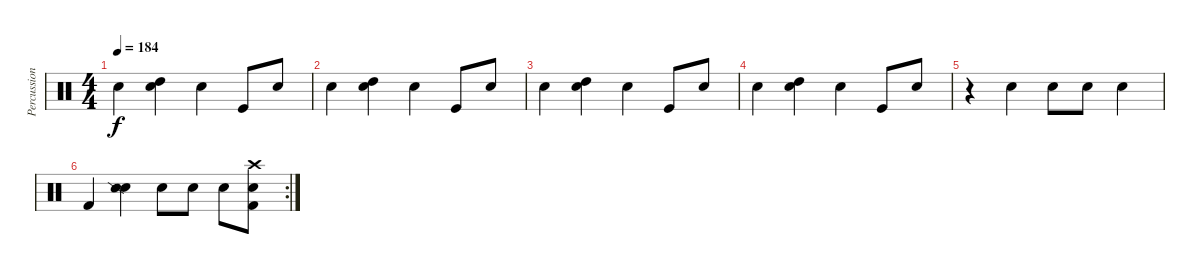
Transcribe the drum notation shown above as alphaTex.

\track ("Percussions" "Percussion") {instrument percussion}
\staff {score}
\articulation defaults
\ts (4 4)
\tempo 184
\clef neutral
\ks c "Metronome (bell)".4{dy f}
("Metronome (bell)" "High Tom (hit)").4 "Metronome (bell)".4 "Kick (hit)".8 "Metronome (bell)".8 |
"Metronome (bell)".4 ("Metronome (bell)" "High Tom (hit)").4 "Metronome (bell)".4 "Kick (hit)".8 "Metronome (bell)".8 |
"Metronome (bell)".4 ("Metronome (bell)" "High Tom (hit)").4 "Metronome (bell)".4 "Kick (hit)".8 "Metronome (bell)".8 |
"Metronome (bell)".4 ("Metronome (bell)" "High Tom (hit)").4 "Metronome (bell)".4 "Kick (hit)".8 "Metronome (bell)".8 |
r.4 "Metronome (bell)".4 "Metronome (bell)".8 "Metronome (bell)".8 "Metronome (bell)".4 |
\rc 2 "Kick (hit) 2".4
("Metronome (bell)" "Snare (side stick) 2").4 "Metronome (bell)".8 "Metronome (bell)".8 "Metronome (bell)".8 ("Kick (hit) 2" "Metronome (bell)" "Crash high (hit)").8
